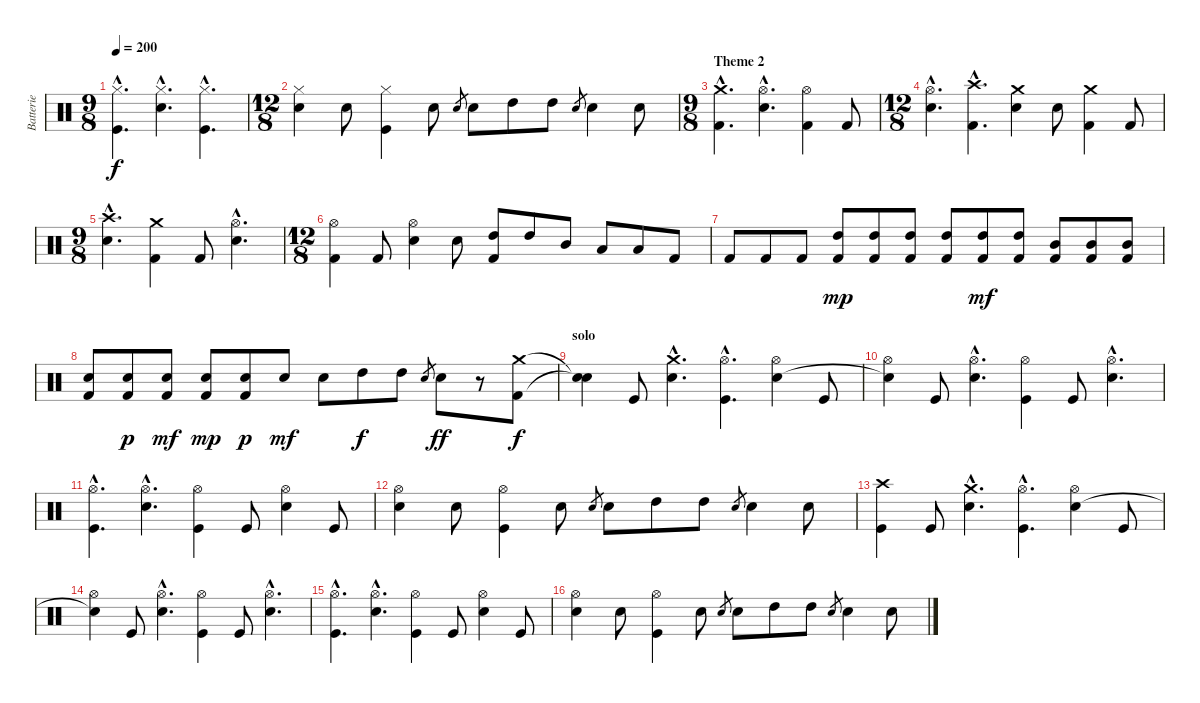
\track ("Batterie" "Batterie") {instrument percussion}
\staff {score}
\articulation defaults
\ts (9 8)
\tempo 200
\clef neutral
\ks c
("Hi-Hat (closed)"{hac} "Kick (hit)"{hac}).4{d dy f} ("Hi-Hat (closed)"{hac} "Electric Snare (hit)"{hac}).4{d} ("Hi-Hat (closed)"{hac} "Kick (hit)"{hac}).4{d} |
\ts (12 8)
("Hi-Hat (closed)" "Electric Snare (hit)").4 "Electric Snare (hit)".8 ("Hi-Hat (closed)" "Kick (hit)").4 "Electric Snare (hit)".8 "Electric Snare (hit)".8{gr} "Electric Snare (hit)".8 "High Tom (hit)".8 "High Tom (hit)".8 "Electric Snare (hit)".8{gr} "Electric Snare (hit)".4 "Electric Snare (hit)".8 |
\ts (9 8)
\section ("" "Theme 2")
("Crash medium (hit)"{hac} "Kick (hit) 2"{hac}).4{d} ("Hi-Hat (open)"{hac} "Electric Snare (hit)"{hac}).4{d} ("Hi-Hat (open)" "Kick (hit) 2").4 "Kick (hit) 2".8 |
\ts (12 8)
("Hi-Hat (open)"{hac} "Electric Snare (hit)"{hac}).4{d} ("Crash high (hit)"{hac} "Kick (hit) 2"{hac}).4{d} ("Crash medium (hit)" "Electric Snare (hit)").4 "Electric Snare (hit)".8 ("Crash medium (hit)" "Kick (hit) 2").4 "Kick (hit) 2".8 |
\ts (9 8)
("Crash high (hit)"{hac} "Electric Snare (hit)"{hac}).4{d} ("Crash medium (hit)" "Kick (hit) 2").4 "Kick (hit) 2".8 ("Hi-Hat (open)"{hac} "Electric Snare (hit)"{hac}).4{d} |
\ts (12 8)
("Hi-Hat (open)" "Kick (hit) 2").4 "Kick (hit) 2".8 ("Hi-Hat (open)" "Electric Snare (hit)").4 "Electric Snare (hit)".8 ("High Tom (hit)" "Kick (hit) 2").8 "High Tom (hit)".8 "Mid Tom (hit)".8 "Low Tom (hit)".8 "Low Tom (hit)".8 "Kick (hit) 2".8 |
"Kick (hit) 2".8 "Kick (hit) 2".8 "Kick (hit) 2".8 ("High Tom (hit)" "Kick (hit) 2").8{dy mp} ("High Tom (hit)" "Kick (hit) 2").8 ("High Tom (hit)" "Kick (hit) 2").8 ("High Tom (hit)" "Kick (hit) 2").8 ("High Tom (hit)" "Kick (hit) 2").8{dy mf} ("High Tom (hit)" "Kick (hit) 2").8 ("Mid Tom (hit)" "Kick (hit) 2").8 ("Mid Tom (hit)" "Kick (hit) 2").8 ("Mid Tom (hit)" "Kick (hit) 2").8 |
("Electric Snare (hit)" "Kick (hit) 2").8 ("Electric Snare (hit)" "Kick (hit) 2").8{dy p} ("Electric Snare (hit)" "Kick (hit) 2").8{dy mf} ("Electric Snare (hit)" "Kick (hit) 2").8{dy mp} ("Electric Snare (hit)" "Kick (hit) 2").8{dy p} "Electric Snare (hit)".8{dy mf} "Electric Snare (hit)".8 "High Tom (hit)".8{dy f} "High Tom (hit)".8 "Electric Snare (hit)".8{gr} "Electric Snare (hit)".8{dy ff} r.8 ("Crash medium (hit)" "Kick (hit) 2").8{dy f} |
\section ("" "solo")
("Snare (hit)"{t} "Snare (hit)"{t}).4 "Kick (hit)".8 ("Crash medium (hit)"{hac} "Electric Snare (hit)"{hac}).4{d} ("Hi-Hat (open)"{hac} "Kick (hit)"{hac}).4{d} ("Hi-Hat (open)" "Electric Snare (hit)").4 "Kick (hit)".8 |
("Hi-Hat (open)" "Snare (hit)"{t}).4 "Kick (hit)".8 ("Hi-Hat (open)"{hac} "Electric Snare (hit)"{hac}).4{d} ("Hi-Hat (open)" "Kick (hit)").4 "Kick (hit)".8 ("Hi-Hat (open)"{hac} "Electric Snare (hit)"{hac}).4{d} |
("Hi-Hat (open)"{hac} "Kick (hit)"{hac}).4{d} ("Hi-Hat (open)"{hac} "Electric Snare (hit)"{hac}).4{d} ("Hi-Hat (open)" "Kick (hit)").4 "Kick (hit)".8 ("Hi-Hat (open)" "Electric Snare (hit)").4 "Kick (hit)".8 |
("Hi-Hat (open)" "Electric Snare (hit)").4 "Electric Snare (hit)".8 ("Hi-Hat (open)" "Kick (hit)").4 "Electric Snare (hit)".8 "Electric Snare (hit)".8{gr} "Electric Snare (hit)".8 "High Tom (hit)".8 "High Tom (hit)".8 "Electric Snare (hit)".8{gr} "Electric Snare (hit)".4 "Electric Snare (hit)".8 |
("Crash high (hit)" "Kick (hit)").4 "Kick (hit)".8 ("Crash medium (hit)"{hac} "Electric Snare (hit)"{hac}).4{d} ("Hi-Hat (open)"{hac} "Kick (hit)"{hac}).4{d} ("Hi-Hat (open)" "Electric Snare (hit)").4 "Kick (hit)".8 |
("Hi-Hat (open)" "Snare (hit)"{t}).4 "Kick (hit)".8 ("Hi-Hat (open)"{hac} "Electric Snare (hit)"{hac}).4{d} ("Hi-Hat (open)" "Kick (hit)").4 "Kick (hit)".8 ("Hi-Hat (open)"{hac} "Electric Snare (hit)"{hac}).4{d} |
("Hi-Hat (open)"{hac} "Kick (hit)"{hac}).4{d} ("Hi-Hat (open)"{hac} "Electric Snare (hit)"{hac}).4{d} ("Hi-Hat (open)" "Kick (hit)").4 "Kick (hit)".8 ("Hi-Hat (open)" "Electric Snare (hit)").4 "Kick (hit)".8 |
("Hi-Hat (open)" "Electric Snare (hit)").4 "Electric Snare (hit)".8 ("Hi-Hat (open)" "Kick (hit)").4 "Electric Snare (hit)".8 "Electric Snare (hit)".8{gr} "Electric Snare (hit)".8 "High Tom (hit)".8 "High Tom (hit)".8 "Electric Snare (hit)".8{gr} "Electric Snare (hit)".4 "Electric Snare (hit)".8
